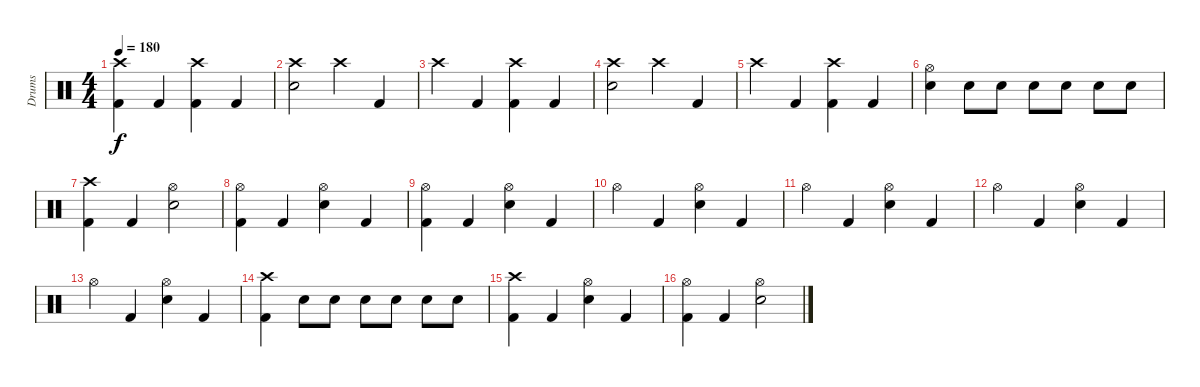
\track ("Drums" "Drums") {instrument percussion}
\staff {score}
\articulation defaults
\ts (4 4)
\tempo 180
\clef neutral
\ks c
("Crash high (hit)" "Kick (hit) 2").4{dy f} "Kick (hit) 2".4 ("Crash high (hit)" "Kick (hit) 2").4 "Kick (hit) 2".4 |
("Crash high (hit)" "Electric Snare (hit)").2 "Crash high (hit)".4 "Kick (hit) 2".4 |
"Crash high (hit)".4 "Kick (hit) 2".4 ("Crash high (hit)" "Kick (hit) 2").4 "Kick (hit) 2".4 |
("Crash high (hit)" "Electric Snare (hit)").2 "Crash high (hit)".4 "Kick (hit) 2".4 |
"Crash high (hit)".4 "Kick (hit) 2".4 ("Crash high (hit)" "Kick (hit) 2").4 "Kick (hit) 2".4 |
("Hi-Hat (open)" "Electric Snare (hit)").4 "Electric Snare (hit)".8 "Electric Snare (hit)".8 "Electric Snare (hit)".8 "Electric Snare (hit)".8 "Electric Snare (hit)".8 "Electric Snare (hit)".8 |
("Crash high (hit)" "Kick (hit) 2").4 "Kick (hit) 2".4 ("Hi-Hat (open)" "Electric Snare (hit)").2 |
("Hi-Hat (open)" "Kick (hit) 2").4 "Kick (hit) 2".4 ("Hi-Hat (open)" "Electric Snare (hit)").4 "Kick (hit) 2".4 |
("Hi-Hat (open)" "Kick (hit) 2").4 "Kick (hit) 2".4 ("Hi-Hat (open)" "Electric Snare (hit)").4 "Kick (hit) 2".4 |
"Hi-Hat (open)".4 "Kick (hit) 2".4 ("Hi-Hat (open)" "Electric Snare (hit)").4 "Kick (hit) 2".4 |
"Hi-Hat (open)".4 "Kick (hit) 2".4 ("Hi-Hat (open)" "Electric Snare (hit)").4 "Kick (hit) 2".4 |
"Hi-Hat (open)".4 "Kick (hit) 2".4 ("Hi-Hat (open)" "Electric Snare (hit)").4 "Kick (hit) 2".4 |
"Hi-Hat (open)".4 "Kick (hit) 2".4 ("Hi-Hat (open)" "Electric Snare (hit)").4 "Kick (hit) 2".4 |
("Crash high (hit)" "Kick (hit) 2").4 "Electric Snare (hit)".8 "Electric Snare (hit)".8 "Electric Snare (hit)".8 "Electric Snare (hit)".8 "Electric Snare (hit)".8 "Electric Snare (hit)".8 |
("Crash high (hit)" "Kick (hit) 2").4 "Kick (hit) 2".4 ("Hi-Hat (open)" "Electric Snare (hit)").4 "Kick (hit) 2".4 |
("Hi-Hat (open)" "Kick (hit) 2").4 "Kick (hit) 2".4 ("Hi-Hat (open)" "Electric Snare (hit)").2
